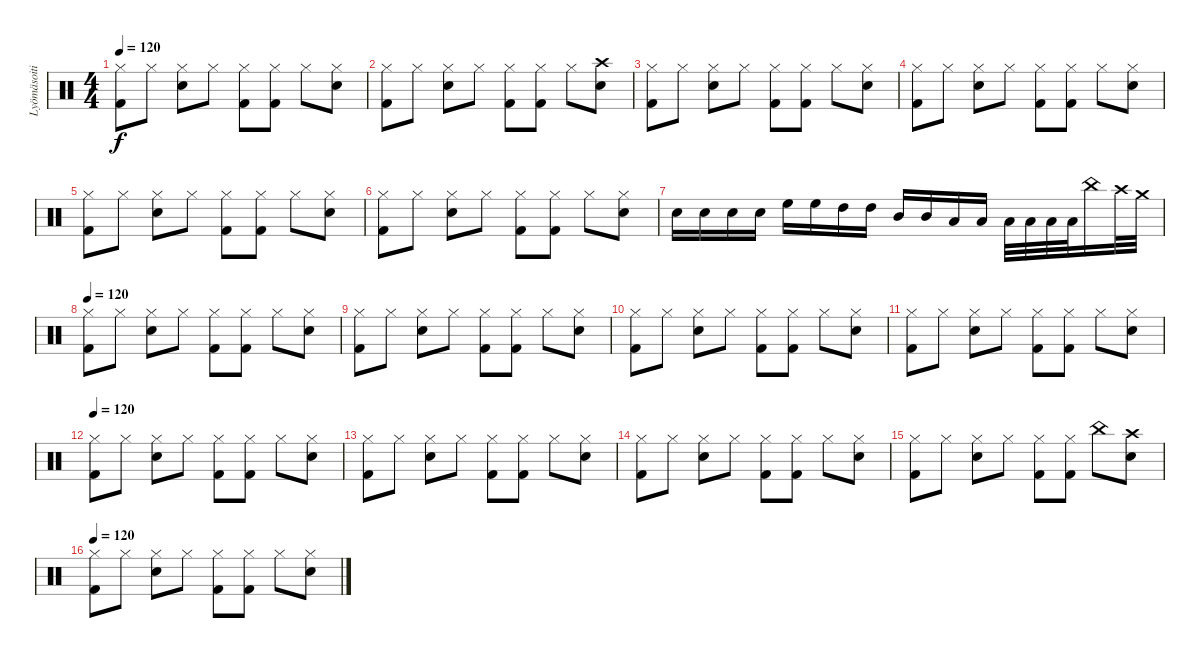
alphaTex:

\track ("Lyömäsoitin" "Lyömäsoiti") {instrument percussion}
\staff {score}
\articulation defaults
\ts (4 4)
\tempo 120
\clef neutral
\ks c
("Hi-Hat (closed)" "Kick (hit) 2").8{dy f} "Hi-Hat (closed)".8 ("Hi-Hat (closed)" "Snare (hit) 2").8 "Hi-Hat (closed)".8 ("Hi-Hat (closed)" "Kick (hit) 2").8 ("Hi-Hat (closed)" "Kick (hit) 2").8 "Hi-Hat (closed)".8 ("Hi-Hat (closed)" "Snare (hit) 2").8 |
("Hi-Hat (closed)" "Kick (hit) 2").8 "Hi-Hat (closed)".8 ("Hi-Hat (closed)" "Snare (hit) 2").8 "Hi-Hat (closed)".8 ("Hi-Hat (closed)" "Kick (hit) 2").8 ("Hi-Hat (closed)" "Kick (hit) 2").8 "Hi-Hat (closed)".8 ("Crash high (hit)" "Snare (hit) 2").8 |
("Hi-Hat (closed)" "Kick (hit) 2").8 "Hi-Hat (closed)".8 ("Hi-Hat (closed)" "Snare (hit) 2").8 "Hi-Hat (closed)".8 ("Hi-Hat (closed)" "Kick (hit) 2").8 ("Hi-Hat (closed)" "Kick (hit) 2").8 "Hi-Hat (closed)".8 ("Hi-Hat (closed)" "Snare (hit) 2").8 |
("Hi-Hat (closed)" "Kick (hit) 2").8 "Hi-Hat (closed)".8 ("Hi-Hat (closed)" "Snare (hit) 2").8 "Hi-Hat (closed)".8 ("Hi-Hat (closed)" "Kick (hit) 2").8 ("Hi-Hat (closed)" "Kick (hit) 2").8 "Hi-Hat (closed)".8 ("Hi-Hat (closed)" "Snare (hit) 2").8 |
("Hi-Hat (closed)" "Kick (hit) 2").8 "Hi-Hat (closed)".8 ("Hi-Hat (closed)" "Snare (hit) 2").8 "Hi-Hat (closed)".8 ("Hi-Hat (closed)" "Kick (hit) 2").8 ("Hi-Hat (closed)" "Kick (hit) 2").8 "Hi-Hat (closed)".8 ("Hi-Hat (closed)" "Snare (hit) 2").8 |
("Hi-Hat (closed)" "Kick (hit) 2").8 "Hi-Hat (closed)".8 ("Hi-Hat (closed)" "Snare (hit) 2").8 "Hi-Hat (closed)".8 ("Hi-Hat (closed)" "Kick (hit) 2").8 ("Hi-Hat (closed)" "Kick (hit) 2").8 "Hi-Hat (closed)".8 ("Hi-Hat (closed)" "Snare (hit) 2").8 |
"Snare (hit) 2".16 "Snare (hit) 2".16 "Snare (hit) 2".16 "Snare (hit) 2".16 "High Floor Tom (hit)".16 "High Floor Tom (hit)".16 "High Tom (hit)".16 "High Tom (hit)".16 "Mid Tom (hit)".16 "Mid Tom (hit)".16 "Low Tom (hit)".16 "Low Tom (hit)".16 "Low Tom (hit)".32 "Low Tom (hit)".32 "Low Tom (hit)".32 "Low Tom (hit)".32 "China (hit)".16 "Crash high (hit)".32 "Crash medium (hit)".32 |
\tempo 120
("Hi-Hat (closed)" "Kick (hit) 2").8 "Hi-Hat (closed)".8 ("Hi-Hat (closed)" "Snare (hit) 2").8 "Hi-Hat (closed)".8 ("Hi-Hat (closed)" "Kick (hit) 2").8 ("Hi-Hat (closed)" "Kick (hit) 2").8 "Hi-Hat (closed)".8 ("Hi-Hat (closed)" "Snare (hit) 2").8 |
("Hi-Hat (closed)" "Kick (hit) 2").8 "Hi-Hat (closed)".8 ("Hi-Hat (closed)" "Snare (hit) 2").8 "Hi-Hat (closed)".8 ("Hi-Hat (closed)" "Kick (hit) 2").8 ("Hi-Hat (closed)" "Kick (hit) 2").8 "Hi-Hat (closed)".8 ("Hi-Hat (closed)" "Snare (hit) 2").8 |
("Hi-Hat (closed)" "Kick (hit) 2").8 "Hi-Hat (closed)".8 ("Hi-Hat (closed)" "Snare (hit) 2").8 "Hi-Hat (closed)".8 ("Hi-Hat (closed)" "Kick (hit) 2").8 ("Hi-Hat (closed)" "Kick (hit) 2").8 "Hi-Hat (closed)".8 ("Hi-Hat (closed)" "Snare (hit) 2").8 |
("Hi-Hat (closed)" "Kick (hit) 2").8 "Hi-Hat (closed)".8 ("Hi-Hat (closed)" "Snare (hit) 2").8 "Hi-Hat (closed)".8 ("Hi-Hat (closed)" "Kick (hit) 2").8 ("Hi-Hat (closed)" "Kick (hit) 2").8 "Hi-Hat (closed)".8 ("Hi-Hat (closed)" "Snare (hit) 2").8 |
\tempo 120
("Hi-Hat (closed)" "Kick (hit) 2").8 "Hi-Hat (closed)".8 ("Hi-Hat (closed)" "Snare (hit) 2").8 "Hi-Hat (closed)".8 ("Hi-Hat (closed)" "Kick (hit) 2").8 ("Hi-Hat (closed)" "Kick (hit) 2").8 "Hi-Hat (closed)".8 ("Hi-Hat (closed)" "Snare (hit) 2").8 |
("Hi-Hat (closed)" "Kick (hit) 2").8 "Hi-Hat (closed)".8 ("Hi-Hat (closed)" "Snare (hit) 2").8 "Hi-Hat (closed)".8 ("Hi-Hat (closed)" "Kick (hit) 2").8 ("Hi-Hat (closed)" "Kick (hit) 2").8 "Hi-Hat (closed)".8 ("Hi-Hat (closed)" "Snare (hit) 2").8 |
("Hi-Hat (closed)" "Kick (hit) 2").8 "Hi-Hat (closed)".8 ("Hi-Hat (closed)" "Snare (hit) 2").8 "Hi-Hat (closed)".8 ("Hi-Hat (closed)" "Kick (hit) 2").8 ("Hi-Hat (closed)" "Kick (hit) 2").8 "Hi-Hat (closed)".8 ("Hi-Hat (closed)" "Snare (hit) 2").8 |
("Hi-Hat (closed)" "Kick (hit) 2").8 "Hi-Hat (closed)".8 ("Hi-Hat (closed)" "Snare (hit) 2").8 "Hi-Hat (closed)".8 ("Hi-Hat (closed)" "Kick (hit) 2").8 ("Hi-Hat (closed)" "Kick (hit) 2").8 "China (hit)".8 ("Crash high (hit)" "Snare (hit) 2").8 |
\tempo 120
("Hi-Hat (closed)" "Kick (hit) 2").8 "Hi-Hat (closed)".8 ("Hi-Hat (closed)" "Snare (hit) 2").8 "Hi-Hat (closed)".8 ("Hi-Hat (closed)" "Kick (hit) 2").8 ("Hi-Hat (closed)" "Kick (hit) 2").8 "Hi-Hat (closed)".8 ("Hi-Hat (closed)" "Snare (hit) 2").8
